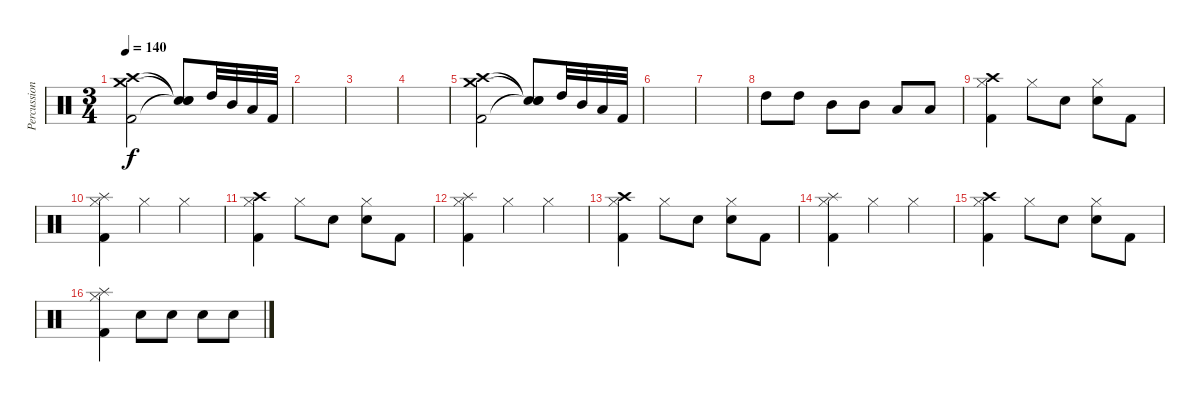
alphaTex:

\track ("Percussion" "Percussion") {instrument percussion}
\staff {score}
\articulation defaults
\ts (3 4)
\tempo 140
\clef neutral
\ks c
("Crash high (hit)" "Crash medium (hit)" "Kick (hit) 2").2{dy f} ("Snare (hit)"{t} "Snare (hit)"{t} "Snare (hit)"{t}).8 "High Tom (hit)".32 "Mid Tom (hit)".32 "Low Tom (hit)".32 "Kick (hit) 2".32 |
|
|
|
("Crash high (hit)" "Crash medium (hit)" "Kick (hit) 2").2 ("Snare (hit)"{t} "Snare (hit)"{t} "Snare (hit)"{t}).8 "High Tom (hit)".32 "Mid Tom (hit)".32 "Low Tom (hit)".32 "Kick (hit) 2".32 |
|
|
"High Tom (hit)".8 "High Tom (hit)".8 "Mid Tom (hit)".8 "Mid Tom (hit)".8 "Low Tom (hit)".8 "Low Tom (hit)".8 |
("Crash high (hit)" "Hi-Hat (closed)" "Kick (hit) 2").4 "Hi-Hat (closed)".8 "Electric Snare (hit)".8 ("Hi-Hat (closed)" "Electric Snare (hit)").8 "Kick (hit) 2".8 |
("Splash (hit)" "Hi-Hat (closed)" "Kick (hit) 2").4 "Hi-Hat (closed)".4 "Hi-Hat (closed)".4 |
("Crash high (hit)" "Hi-Hat (closed)" "Kick (hit) 2").4 "Hi-Hat (closed)".8 "Electric Snare (hit)".8 ("Hi-Hat (closed)" "Electric Snare (hit)").8 "Kick (hit) 2".8 |
("Splash (hit)" "Hi-Hat (closed)" "Kick (hit) 2").4 "Hi-Hat (closed)".4 "Hi-Hat (closed)".4 |
("Crash high (hit)" "Hi-Hat (closed)" "Kick (hit) 2").4 "Hi-Hat (closed)".8 "Electric Snare (hit)".8 ("Hi-Hat (closed)" "Electric Snare (hit)").8 "Kick (hit) 2".8 |
("Splash (hit)" "Hi-Hat (closed)" "Kick (hit) 2").4 "Hi-Hat (closed)".4 "Hi-Hat (closed)".4 |
("Crash high (hit)" "Hi-Hat (closed)" "Kick (hit) 2").4 "Hi-Hat (closed)".8 "Electric Snare (hit)".8 ("Hi-Hat (closed)" "Electric Snare (hit)").8 "Kick (hit) 2".8 |
("Splash (hit)" "Hi-Hat (closed)" "Kick (hit) 2").4 "Electric Snare (hit)".8 "Electric Snare (hit)".8 "Electric Snare (hit)".8 "Electric Snare (hit)".8
